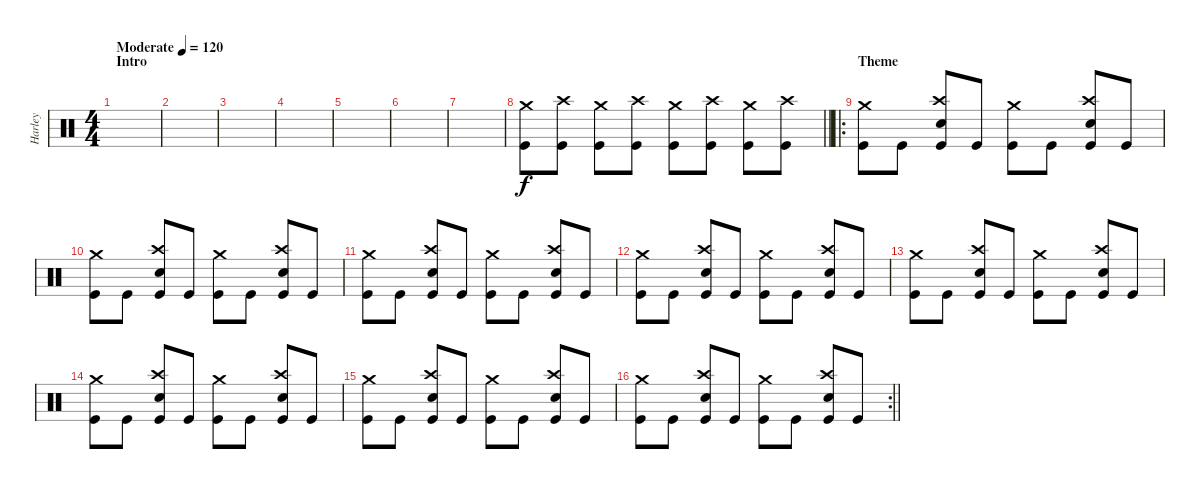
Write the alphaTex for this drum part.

\track ("Harley" "Harley") {instrument percussion}
\staff {score}
\articulation defaults
\ts (4 4)
\section ("" "Intro")
\tempo (120 "Moderate")
\clef neutral
\ks c
|
|
|
|
|
|
|
\barLineRight lightlight
("Crash medium (hit)" "Kick (hit)").8 ("Crash high (hit)" "Kick (hit)").8 ("Crash medium (hit)" "Kick (hit)").8 ("Crash high (hit)" "Kick (hit)").8 ("Crash medium (hit)" "Kick (hit)").8 ("Crash high (hit)" "Kick (hit)").8 ("Crash medium (hit)" "Kick (hit)").8 ("Crash high (hit)" "Kick (hit)").8 |
\ro
\section ("" "Theme")
("Crash medium (hit)" "Kick (hit)").8 "Kick (hit)".8 ("Crash high (hit)" "Snare (hit) 2" "Kick (hit)").8 "Kick (hit)".8 ("Crash medium (hit)" "Kick (hit)").8 "Kick (hit)".8 ("Crash high (hit)" "Snare (hit) 2" "Kick (hit)").8 "Kick (hit)".8 |
("Crash medium (hit)" "Kick (hit)").8 "Kick (hit)".8 ("Crash high (hit)" "Snare (hit) 2" "Kick (hit)").8 "Kick (hit)".8 ("Crash medium (hit)" "Kick (hit)").8 "Kick (hit)".8 ("Crash high (hit)" "Snare (hit) 2" "Kick (hit)").8 "Kick (hit)".8 |
("Crash medium (hit)" "Kick (hit)").8 "Kick (hit)".8 ("Crash high (hit)" "Snare (hit) 2" "Kick (hit)").8 "Kick (hit)".8 ("Crash medium (hit)" "Kick (hit)").8 "Kick (hit)".8 ("Crash high (hit)" "Snare (hit) 2" "Kick (hit)").8 "Kick (hit)".8 |
("Crash medium (hit)" "Kick (hit)").8 "Kick (hit)".8 ("Crash high (hit)" "Snare (hit) 2" "Kick (hit)").8 "Kick (hit)".8 ("Crash medium (hit)" "Kick (hit)").8 "Kick (hit)".8 ("Crash high (hit)" "Snare (hit) 2" "Kick (hit)").8 "Kick (hit)".8 |
("Crash medium (hit)" "Kick (hit)").8 "Kick (hit)".8 ("Crash high (hit)" "Snare (hit) 2" "Kick (hit)").8 "Kick (hit)".8 ("Crash medium (hit)" "Kick (hit)").8 "Kick (hit)".8 ("Crash high (hit)" "Snare (hit) 2" "Kick (hit)").8 "Kick (hit)".8 |
("Crash medium (hit)" "Kick (hit)").8 "Kick (hit)".8 ("Crash high (hit)" "Snare (hit) 2" "Kick (hit)").8 "Kick (hit)".8 ("Crash medium (hit)" "Kick (hit)").8 "Kick (hit)".8 ("Crash high (hit)" "Snare (hit) 2" "Kick (hit)").8 "Kick (hit)".8 |
("Crash medium (hit)" "Kick (hit)").8 "Kick (hit)".8 ("Crash high (hit)" "Snare (hit) 2" "Kick (hit)").8 "Kick (hit)".8 ("Crash medium (hit)" "Kick (hit)").8 "Kick (hit)".8 ("Crash high (hit)" "Snare (hit) 2" "Kick (hit)").8 "Kick (hit)".8 |
\rc 2
\barLineRight lightlight
("Crash medium (hit)" "Kick (hit)").8 "Kick (hit)".8 ("Crash high (hit)" "Snare (hit) 2" "Kick (hit)").8 "Kick (hit)".8 ("Crash medium (hit)" "Kick (hit)").8 "Kick (hit)".8 ("Crash high (hit)" "Snare (hit) 2" "Kick (hit)").8 "Kick (hit)".8
